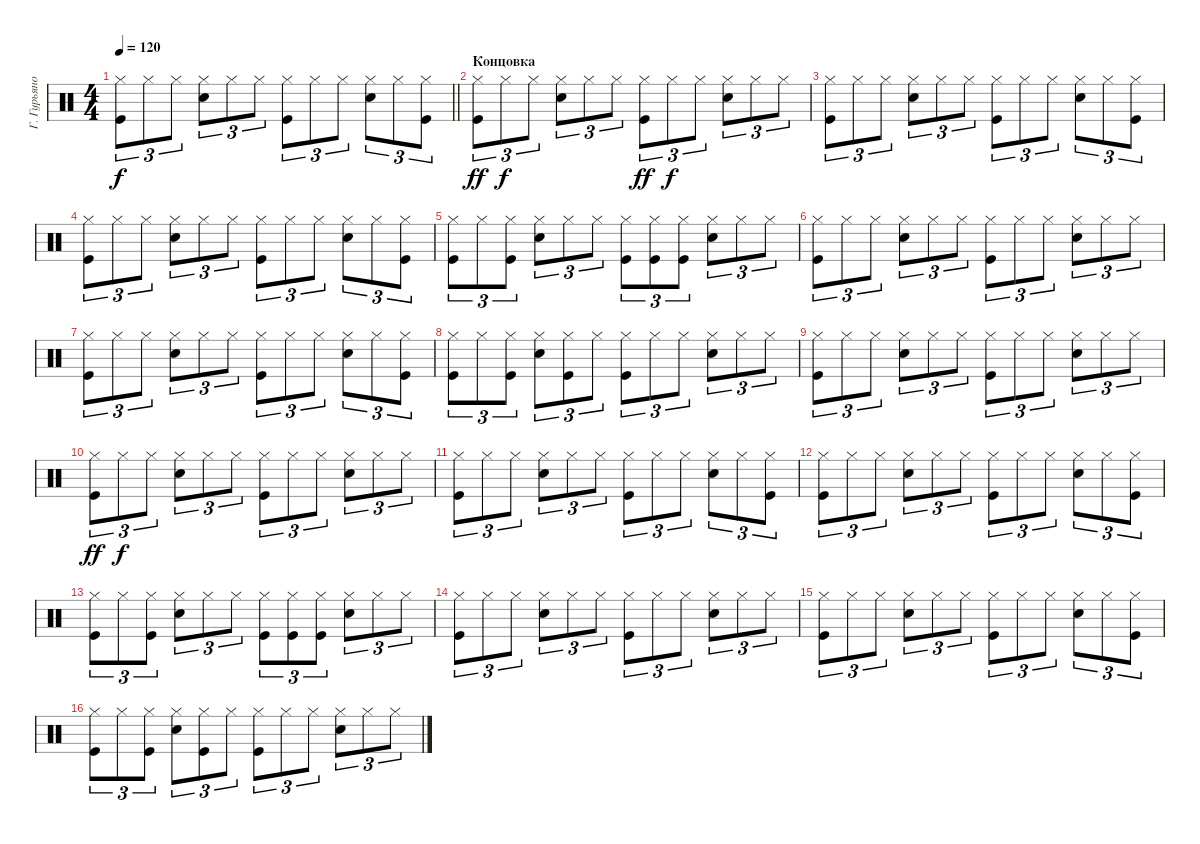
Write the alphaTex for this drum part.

\track ("Г. Гурьянов" "Г. Гурьяно") {instrument percussion}
\staff
\articulation defaults
\ts (4 4)
\tempo 120
\clef neutral
\barLineRight lightlight
\ks c
("Hi-Hat (closed)" "Kick (hit)").8{tu (3 2) dy f} "Hi-Hat (closed)".8{tu (3 2)} "Hi-Hat (closed)".8{tu (3 2)} ("Hi-Hat (closed)" "Snare (hit) 2").8{tu (3 2)} "Hi-Hat (closed)".8{tu (3 2)} "Hi-Hat (closed)".8{tu (3 2)} ("Hi-Hat (closed)" "Kick (hit)").8{tu (3 2)} "Hi-Hat (closed)".8{tu (3 2)} "Hi-Hat (closed)".8{tu (3 2)} ("Hi-Hat (closed)" "Snare (hit) 2").8{tu (3 2)} "Hi-Hat (closed)".8{tu (3 2)} ("Hi-Hat (closed)" "Kick (hit)").8{tu (3 2)} |
\section ("" "Концовка")
("Hi-Hat (closed)" "Kick (hit)").8{tu (3 2) dy ff} "Hi-Hat (closed)".8{tu (3 2) dy f} "Hi-Hat (closed)".8{tu (3 2)} ("Hi-Hat (closed)" "Snare (hit) 2").8{tu (3 2)} "Hi-Hat (closed)".8{tu (3 2)} "Hi-Hat (closed)".8{tu (3 2)} ("Hi-Hat (closed)" "Kick (hit)").8{tu (3 2) dy ff} "Hi-Hat (closed)".8{tu (3 2) dy f} "Hi-Hat (closed)".8{tu (3 2)} ("Hi-Hat (closed)" "Snare (hit) 2").8{tu (3 2)} "Hi-Hat (closed)".8{tu (3 2)} "Hi-Hat (closed)".8{tu (3 2)} |
("Hi-Hat (closed)" "Kick (hit)").8{tu (3 2)} "Hi-Hat (closed)".8{tu (3 2)} "Hi-Hat (closed)".8{tu (3 2)} ("Hi-Hat (closed)" "Snare (hit) 2").8{tu (3 2)} "Hi-Hat (closed)".8{tu (3 2)} "Hi-Hat (closed)".8{tu (3 2)} ("Hi-Hat (closed)" "Kick (hit)").8{tu (3 2)} "Hi-Hat (closed)".8{tu (3 2)} "Hi-Hat (closed)".8{tu (3 2)} ("Hi-Hat (closed)" "Snare (hit) 2").8{tu (3 2)} "Hi-Hat (closed)".8{tu (3 2)} ("Hi-Hat (closed)" "Kick (hit)").8{tu (3 2)} |
("Hi-Hat (closed)" "Kick (hit)").8{tu (3 2)} "Hi-Hat (closed)".8{tu (3 2)} "Hi-Hat (closed)".8{tu (3 2)} ("Hi-Hat (closed)" "Snare (hit) 2").8{tu (3 2)} "Hi-Hat (closed)".8{tu (3 2)} "Hi-Hat (closed)".8{tu (3 2)} ("Hi-Hat (closed)" "Kick (hit)").8{tu (3 2)} "Hi-Hat (closed)".8{tu (3 2)} "Hi-Hat (closed)".8{tu (3 2)} ("Hi-Hat (closed)" "Snare (hit) 2").8{tu (3 2)} "Hi-Hat (closed)".8{tu (3 2)} ("Hi-Hat (closed)" "Kick (hit)").8{tu (3 2)} |
("Hi-Hat (closed)" "Kick (hit)").8{tu (3 2)} "Hi-Hat (closed)".8{tu (3 2)} ("Hi-Hat (closed)" "Kick (hit)").8{tu (3 2)} ("Hi-Hat (closed)" "Snare (hit) 2").8{tu (3 2)} "Hi-Hat (closed)".8{tu (3 2)} "Hi-Hat (closed)".8{tu (3 2)} ("Hi-Hat (closed)" "Kick (hit)").8{tu (3 2)} ("Hi-Hat (closed)" "Kick (hit)").8{tu (3 2)} ("Hi-Hat (closed)" "Kick (hit)").8{tu (3 2)} ("Hi-Hat (closed)" "Snare (hit) 2").8{tu (3 2)} "Hi-Hat (closed)".8{tu (3 2)} "Hi-Hat (closed)".8{tu (3 2)} |
("Hi-Hat (closed)" "Kick (hit)").8{tu (3 2)} "Hi-Hat (closed)".8{tu (3 2)} "Hi-Hat (closed)".8{tu (3 2)} ("Hi-Hat (closed)" "Snare (hit) 2").8{tu (3 2)} "Hi-Hat (closed)".8{tu (3 2)} "Hi-Hat (closed)".8{tu (3 2)} ("Hi-Hat (closed)" "Kick (hit)").8{tu (3 2)} "Hi-Hat (closed)".8{tu (3 2)} "Hi-Hat (closed)".8{tu (3 2)} ("Hi-Hat (closed)" "Snare (hit) 2").8{tu (3 2)} "Hi-Hat (closed)".8{tu (3 2)} "Hi-Hat (closed)".8{tu (3 2)} |
("Hi-Hat (closed)" "Kick (hit)").8{tu (3 2)} "Hi-Hat (closed)".8{tu (3 2)} "Hi-Hat (closed)".8{tu (3 2)} ("Hi-Hat (closed)" "Snare (hit) 2").8{tu (3 2)} "Hi-Hat (closed)".8{tu (3 2)} "Hi-Hat (closed)".8{tu (3 2)} ("Hi-Hat (closed)" "Kick (hit)").8{tu (3 2)} "Hi-Hat (closed)".8{tu (3 2)} "Hi-Hat (closed)".8{tu (3 2)} ("Hi-Hat (closed)" "Snare (hit) 2").8{tu (3 2)} "Hi-Hat (closed)".8{tu (3 2)} ("Hi-Hat (closed)" "Kick (hit)").8{tu (3 2)} |
("Hi-Hat (closed)" "Kick (hit)").8{tu (3 2)} "Hi-Hat (closed)".8{tu (3 2)} ("Hi-Hat (closed)" "Kick (hit)").8{tu (3 2)} ("Hi-Hat (closed)" "Snare (hit) 2").8{tu (3 2)} ("Hi-Hat (closed)" "Kick (hit)").8{tu (3 2)} "Hi-Hat (closed)".8{tu (3 2)} ("Hi-Hat (closed)" "Kick (hit)").8{tu (3 2)} "Hi-Hat (closed)".8{tu (3 2)} "Hi-Hat (closed)".8{tu (3 2)} ("Hi-Hat (closed)" "Snare (hit) 2").8{tu (3 2)} "Hi-Hat (closed)".8{tu (3 2)} "Hi-Hat (closed)".8{tu (3 2)} |
("Hi-Hat (closed)" "Kick (hit)").8{tu (3 2)} "Hi-Hat (closed)".8{tu (3 2)} "Hi-Hat (closed)".8{tu (3 2)} ("Hi-Hat (closed)" "Snare (hit) 2").8{tu (3 2)} "Hi-Hat (closed)".8{tu (3 2)} "Hi-Hat (closed)".8{tu (3 2)} ("Hi-Hat (closed)" "Kick (hit)").8{tu (3 2)} "Hi-Hat (closed)".8{tu (3 2)} "Hi-Hat (closed)".8{tu (3 2)} ("Hi-Hat (closed)" "Snare (hit) 2").8{tu (3 2)} "Hi-Hat (closed)".8{tu (3 2)} "Hi-Hat (closed)".8{tu (3 2)} |
("Hi-Hat (closed)" "Kick (hit)").8{tu (3 2) dy ff} "Hi-Hat (closed)".8{tu (3 2) dy f} "Hi-Hat (closed)".8{tu (3 2)} ("Hi-Hat (closed)" "Snare (hit) 2").8{tu (3 2)} "Hi-Hat (closed)".8{tu (3 2)} "Hi-Hat (closed)".8{tu (3 2)} ("Hi-Hat (closed)" "Kick (hit)").8{tu (3 2)} "Hi-Hat (closed)".8{tu (3 2)} "Hi-Hat (closed)".8{tu (3 2)} ("Hi-Hat (closed)" "Snare (hit) 2").8{tu (3 2)} "Hi-Hat (closed)".8{tu (3 2)} "Hi-Hat (closed)".8{tu (3 2)} |
("Hi-Hat (closed)" "Kick (hit)").8{tu (3 2)} "Hi-Hat (closed)".8{tu (3 2)} "Hi-Hat (closed)".8{tu (3 2)} ("Hi-Hat (closed)" "Snare (hit) 2").8{tu (3 2)} "Hi-Hat (closed)".8{tu (3 2)} "Hi-Hat (closed)".8{tu (3 2)} ("Hi-Hat (closed)" "Kick (hit)").8{tu (3 2)} "Hi-Hat (closed)".8{tu (3 2)} "Hi-Hat (closed)".8{tu (3 2)} ("Hi-Hat (closed)" "Snare (hit) 2").8{tu (3 2)} "Hi-Hat (closed)".8{tu (3 2)} ("Hi-Hat (closed)" "Kick (hit)").8{tu (3 2)} |
("Hi-Hat (closed)" "Kick (hit)").8{tu (3 2)} "Hi-Hat (closed)".8{tu (3 2)} "Hi-Hat (closed)".8{tu (3 2)} ("Hi-Hat (closed)" "Snare (hit) 2").8{tu (3 2)} "Hi-Hat (closed)".8{tu (3 2)} "Hi-Hat (closed)".8{tu (3 2)} ("Hi-Hat (closed)" "Kick (hit)").8{tu (3 2)} "Hi-Hat (closed)".8{tu (3 2)} "Hi-Hat (closed)".8{tu (3 2)} ("Hi-Hat (closed)" "Snare (hit) 2").8{tu (3 2)} "Hi-Hat (closed)".8{tu (3 2)} ("Hi-Hat (closed)" "Kick (hit)").8{tu (3 2)} |
("Hi-Hat (closed)" "Kick (hit)").8{tu (3 2)} "Hi-Hat (closed)".8{tu (3 2)} ("Hi-Hat (closed)" "Kick (hit)").8{tu (3 2)} ("Hi-Hat (closed)" "Snare (hit) 2").8{tu (3 2)} "Hi-Hat (closed)".8{tu (3 2)} "Hi-Hat (closed)".8{tu (3 2)} ("Hi-Hat (closed)" "Kick (hit)").8{tu (3 2)} ("Hi-Hat (closed)" "Kick (hit)").8{tu (3 2)} ("Hi-Hat (closed)" "Kick (hit)").8{tu (3 2)} ("Hi-Hat (closed)" "Snare (hit) 2").8{tu (3 2)} "Hi-Hat (closed)".8{tu (3 2)} "Hi-Hat (closed)".8{tu (3 2)} |
("Hi-Hat (closed)" "Kick (hit)").8{tu (3 2)} "Hi-Hat (closed)".8{tu (3 2)} "Hi-Hat (closed)".8{tu (3 2)} ("Hi-Hat (closed)" "Snare (hit) 2").8{tu (3 2)} "Hi-Hat (closed)".8{tu (3 2)} "Hi-Hat (closed)".8{tu (3 2)} ("Hi-Hat (closed)" "Kick (hit)").8{tu (3 2)} "Hi-Hat (closed)".8{tu (3 2)} "Hi-Hat (closed)".8{tu (3 2)} ("Hi-Hat (closed)" "Snare (hit) 2").8{tu (3 2)} "Hi-Hat (closed)".8{tu (3 2)} "Hi-Hat (closed)".8{tu (3 2)} |
("Hi-Hat (closed)" "Kick (hit)").8{tu (3 2)} "Hi-Hat (closed)".8{tu (3 2)} "Hi-Hat (closed)".8{tu (3 2)} ("Hi-Hat (closed)" "Snare (hit) 2").8{tu (3 2)} "Hi-Hat (closed)".8{tu (3 2)} "Hi-Hat (closed)".8{tu (3 2)} ("Hi-Hat (closed)" "Kick (hit)").8{tu (3 2)} "Hi-Hat (closed)".8{tu (3 2)} "Hi-Hat (closed)".8{tu (3 2)} ("Hi-Hat (closed)" "Snare (hit) 2").8{tu (3 2)} "Hi-Hat (closed)".8{tu (3 2)} ("Hi-Hat (closed)" "Kick (hit)").8{tu (3 2)} |
("Hi-Hat (closed)" "Kick (hit)").8{tu (3 2)} "Hi-Hat (closed)".8{tu (3 2)} ("Hi-Hat (closed)" "Kick (hit)").8{tu (3 2)} ("Hi-Hat (closed)" "Snare (hit) 2").8{tu (3 2)} ("Hi-Hat (closed)" "Kick (hit)").8{tu (3 2)} "Hi-Hat (closed)".8{tu (3 2)} ("Hi-Hat (closed)" "Kick (hit)").8{tu (3 2)} "Hi-Hat (closed)".8{tu (3 2)} "Hi-Hat (closed)".8{tu (3 2)} ("Hi-Hat (closed)" "Snare (hit) 2").8{tu (3 2)} "Hi-Hat (closed)".8{tu (3 2)} "Hi-Hat (closed)".8{tu (3 2)}
